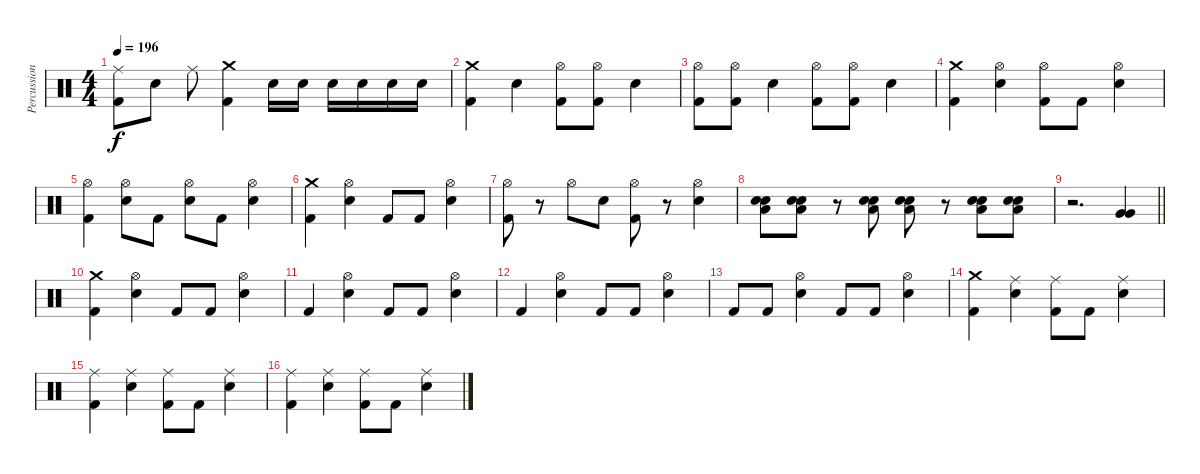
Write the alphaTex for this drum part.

\track ("Percussion" "Percussion") {instrument percussion}
\staff {score}
\articulation defaults
\ts (4 4)
\tempo 196
\clef neutral
\ks c
("Ride (middle)" "Kick (hit) 2").8{dy f} "Electric Snare (hit)".8 "Ride (middle)".8 ("Crash medium (hit)" "Kick (hit) 2").4 "Electric Snare (hit)".16 "Electric Snare (hit)".16 "Electric Snare (hit)".16 "Electric Snare (hit)".16 "Electric Snare (hit)".16 "Electric Snare (hit)".16 |
("Crash medium (hit)" "Kick (hit) 2").4 "Electric Snare (hit)".4 ("Hi-Hat (open)" "Kick (hit) 2").8 ("Hi-Hat (open)" "Kick (hit) 2").8 "Electric Snare (hit)".4 |
("Hi-Hat (open)" "Kick (hit) 2").8 ("Hi-Hat (open)" "Kick (hit) 2").8 "Electric Snare (hit)".4 ("Hi-Hat (open)" "Kick (hit) 2").8 ("Hi-Hat (open)" "Kick (hit) 2").8 "Electric Snare (hit)".4 |
("Crash medium (hit)" "Kick (hit) 2").4 ("Hi-Hat (open)" "Electric Snare (hit)").4 ("Hi-Hat (open)" "Kick (hit) 2").8 "Kick (hit) 2".8 ("Hi-Hat (open)" "Electric Snare (hit)").4 |
("Hi-Hat (open)" "Kick (hit) 2").4 ("Hi-Hat (open)" "Electric Snare (hit)").8 "Kick (hit) 2".8 ("Hi-Hat (open)" "Electric Snare (hit)").8 "Kick (hit) 2".8 ("Hi-Hat (open)" "Electric Snare (hit)").4 |
("Crash medium (hit)" "Kick (hit) 2").4 ("Hi-Hat (open)" "Electric Snare (hit)").4 "Kick (hit) 2".8 "Kick (hit) 2".8 ("Hi-Hat (open)" "Electric Snare (hit)").4 |
("Hi-Hat (open)" "Kick (hit) 2").8 r.8 "Hi-Hat (open)".8 "Electric Snare (hit)".8 ("Hi-Hat (open)" "Kick (hit) 2").8 r.8 ("Hi-Hat (open)" "Electric Snare (hit)").4 |
("Low Floor Tom (hit)" "Electric Snare (hit)" "Electric Snare (hit)").8 ("Low Floor Tom (hit)" "Electric Snare (hit)" "Electric Snare (hit)").8 r.8 ("Low Floor Tom (hit)" "Electric Snare (hit)" "Electric Snare (hit)").8 ("Low Floor Tom (hit)" "Electric Snare (hit)" "Electric Snare (hit)").8 r.8 ("Low Floor Tom (hit)" "Electric Snare (hit)" "Electric Snare (hit)").8 ("Low Floor Tom (hit)" "Electric Snare (hit)" "Electric Snare (hit)").8 |
\barLineRight lightlight
r.2{d} ("Very Low Tom (hit)" "Very Low Tom (hit)").4 |
("Crash medium (hit)" "Kick (hit) 2").4 ("Hi-Hat (open)" "Electric Snare (hit)").4 "Kick (hit) 2".8 "Kick (hit) 2".8 ("Hi-Hat (open)" "Electric Snare (hit)").4 |
"Kick (hit) 2".4 ("Hi-Hat (open)" "Electric Snare (hit)").4 "Kick (hit) 2".8 "Kick (hit) 2".8 ("Hi-Hat (open)" "Electric Snare (hit)").4 |
"Kick (hit) 2".4 ("Hi-Hat (open)" "Electric Snare (hit)").4 "Kick (hit) 2".8 "Kick (hit) 2".8 ("Hi-Hat (open)" "Electric Snare (hit)").4 |
"Kick (hit) 2".8 "Kick (hit) 2".8 ("Hi-Hat (open)" "Electric Snare (hit)").4 "Kick (hit) 2".8 "Kick (hit) 2".8 ("Hi-Hat (open)" "Electric Snare (hit)").4 |
("Crash medium (hit)" "Kick (hit) 2").4 ("Ride (middle)" "Electric Snare (hit)").4 ("Ride (middle)" "Kick (hit) 2").8 "Kick (hit) 2".8 ("Ride (middle)" "Electric Snare (hit)").4 |
("Ride (middle)" "Kick (hit) 2").4 ("Ride (middle)" "Electric Snare (hit)").4 ("Ride (middle)" "Kick (hit) 2").8 "Kick (hit) 2".8 ("Ride (middle)" "Electric Snare (hit)").4 |
("Ride (middle)" "Kick (hit) 2").4 ("Ride (middle)" "Electric Snare (hit)").4 ("Ride (middle)" "Kick (hit) 2").8 "Kick (hit) 2".8 ("Ride (middle)" "Electric Snare (hit)").4
